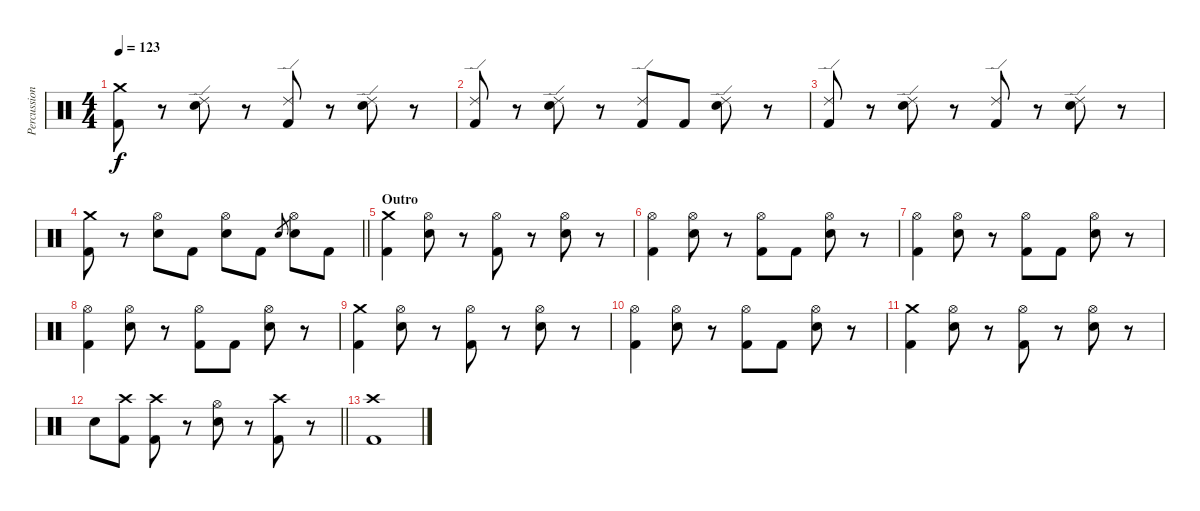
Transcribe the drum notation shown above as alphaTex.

\track ("Percussion" "Percussion") {instrument percussion}
\staff {score}
\articulation defaults
\ts (4 4)
\tempo 123
\clef neutral
\ks c
("Crash medium (hit)" "Kick (hit) 2").8{dy f} r.8 ("Ride (edge) 2" "Electric Snare (hit)").8 r.8 ("Ride (edge) 2" "Kick (hit) 2").8 r.8 ("Ride (edge) 2" "Electric Snare (hit)").8 r.8 |
("Ride (edge) 2" "Kick (hit) 2").8 r.8 ("Ride (edge) 2" "Electric Snare (hit)").8 r.8 ("Ride (edge) 2" "Kick (hit) 2").8 "Kick (hit) 2".8 ("Ride (edge) 2" "Electric Snare (hit)").8 r.8 |
("Ride (edge) 2" "Kick (hit) 2").8 r.8 ("Ride (edge) 2" "Electric Snare (hit)").8 r.8 ("Ride (edge) 2" "Kick (hit) 2").8 r.8 ("Ride (edge) 2" "Electric Snare (hit)").8 r.8 |
\barLineRight lightlight
("Crash medium (hit)" "Kick (hit) 2").8 r.8 ("Hi-Hat (open)" "Electric Snare (hit)").8 "Kick (hit) 2".8 ("Hi-Hat (open)" "Electric Snare (hit)").8 "Kick (hit) 2".8 "Electric Snare (hit)".8{gr} ("Hi-Hat (open)" "Electric Snare (hit)").8 "Kick (hit) 2".8 |
\section ("" "Outro")
("Crash medium (hit)" "Kick (hit) 2").4 ("Hi-Hat (open)" "Electric Snare (hit)").8 r.8 ("Hi-Hat (open)" "Kick (hit) 2").8 r.8 ("Hi-Hat (open)" "Electric Snare (hit)").8 r.8 |
("Hi-Hat (open)" "Kick (hit) 2").4 ("Hi-Hat (open)" "Electric Snare (hit)").8 r.8 ("Hi-Hat (open)" "Kick (hit) 2").8 "Kick (hit) 2".8 ("Hi-Hat (open)" "Electric Snare (hit)").8 r.8 |
("Hi-Hat (open)" "Kick (hit) 2").4 ("Hi-Hat (open)" "Electric Snare (hit)").8 r.8 ("Hi-Hat (open)" "Kick (hit) 2").8 "Kick (hit) 2".8 ("Hi-Hat (open)" "Electric Snare (hit)").8 r.8 |
("Hi-Hat (open)" "Kick (hit) 2").4 ("Hi-Hat (open)" "Electric Snare (hit)").8 r.8 ("Hi-Hat (open)" "Kick (hit) 2").8 "Kick (hit) 2".8 ("Hi-Hat (open)" "Electric Snare (hit)").8 r.8 |
("Crash medium (hit)" "Kick (hit) 2").4 ("Hi-Hat (open)" "Electric Snare (hit)").8 r.8 ("Hi-Hat (open)" "Kick (hit) 2").8 r.8 ("Hi-Hat (open)" "Electric Snare (hit)").8 r.8 |
("Hi-Hat (open)" "Kick (hit) 2").4 ("Hi-Hat (open)" "Electric Snare (hit)").8 r.8 ("Hi-Hat (open)" "Kick (hit) 2").8 "Kick (hit) 2".8 ("Hi-Hat (open)" "Electric Snare (hit)").8 r.8 |
("Crash medium (hit)" "Kick (hit) 2").4 ("Hi-Hat (open)" "Electric Snare (hit)").8 r.8 ("Hi-Hat (open)" "Kick (hit) 2").8 r.8 ("Hi-Hat (open)" "Electric Snare (hit)").8 r.8 |
\barLineRight lightlight "Electric Snare (hit)".8
("Crash high (hit)" "Kick (hit) 2").8 ("Crash high (hit)" "Kick (hit) 2").8 r.8 ("Hi-Hat (open)" "Electric Snare (hit)").8 r.8 ("Crash high (hit)" "Kick (hit) 2").8 r.8 |
("Crash high (hit)" "Kick (hit) 2").1
